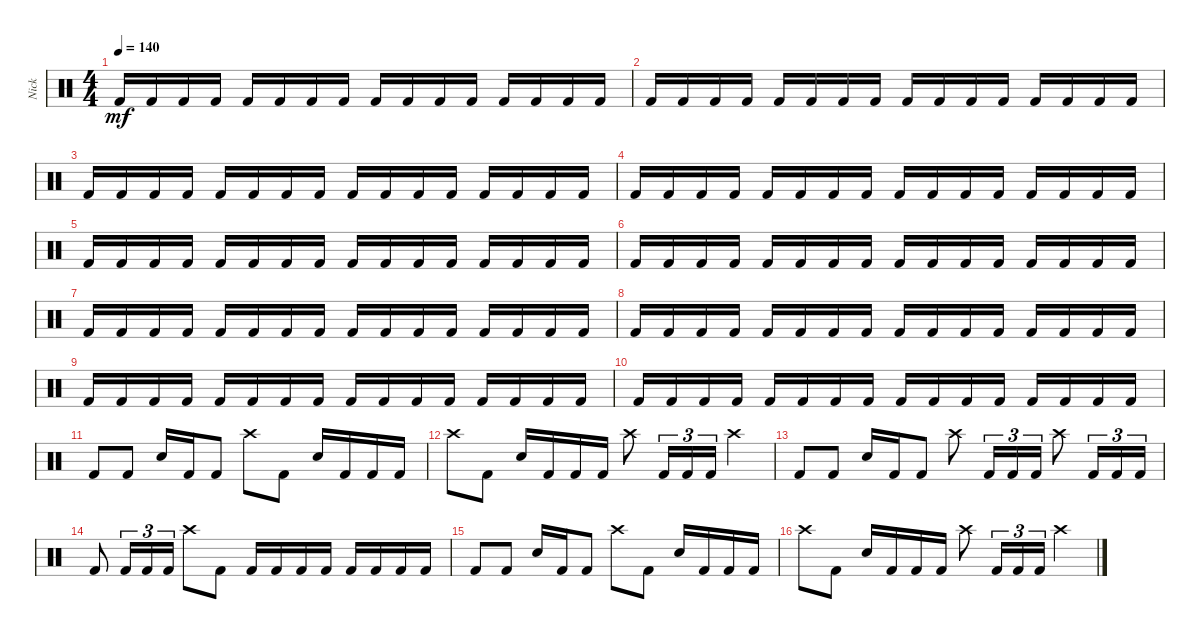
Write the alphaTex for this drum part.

\track ("Nick " "Nick ") {instrument percussion}
\staff {score}
\articulation defaults
\ts (4 4)
\tempo 140
\clef neutral
\ks c "Kick (hit) 2".16{dy mf} "Kick (hit) 2".16 "Kick (hit) 2".16 "Kick (hit) 2".16 "Kick (hit) 2".16 "Kick (hit) 2".16 "Kick (hit) 2".16 "Kick (hit) 2".16 "Kick (hit) 2".16 "Kick (hit) 2".16 "Kick (hit) 2".16 "Kick (hit) 2".16 "Kick (hit) 2".16 "Kick (hit) 2".16 "Kick (hit) 2".16 "Kick (hit) 2".16
|
"Kick (hit) 2".16 "Kick (hit) 2".16 "Kick (hit) 2".16 "Kick (hit) 2".16 "Kick (hit) 2".16 "Kick (hit) 2".16 "Kick (hit) 2".16 "Kick (hit) 2".16 "Kick (hit) 2".16 "Kick (hit) 2".16 "Kick (hit) 2".16 "Kick (hit) 2".16 "Kick (hit) 2".16 "Kick (hit) 2".16 "Kick (hit) 2".16 "Kick (hit) 2".16 |
"Kick (hit) 2".16 "Kick (hit) 2".16 "Kick (hit) 2".16 "Kick (hit) 2".16 "Kick (hit) 2".16 "Kick (hit) 2".16 "Kick (hit) 2".16 "Kick (hit) 2".16 "Kick (hit) 2".16 "Kick (hit) 2".16 "Kick (hit) 2".16 "Kick (hit) 2".16 "Kick (hit) 2".16 "Kick (hit) 2".16 "Kick (hit) 2".16 "Kick (hit) 2".16 |
"Kick (hit) 2".16 "Kick (hit) 2".16 "Kick (hit) 2".16 "Kick (hit) 2".16 "Kick (hit) 2".16 "Kick (hit) 2".16 "Kick (hit) 2".16 "Kick (hit) 2".16 "Kick (hit) 2".16 "Kick (hit) 2".16 "Kick (hit) 2".16 "Kick (hit) 2".16 "Kick (hit) 2".16 "Kick (hit) 2".16 "Kick (hit) 2".16 "Kick (hit) 2".16 |
"Kick (hit) 2".16 "Kick (hit) 2".16 "Kick (hit) 2".16 "Kick (hit) 2".16 "Kick (hit) 2".16 "Kick (hit) 2".16 "Kick (hit) 2".16 "Kick (hit) 2".16 "Kick (hit) 2".16 "Kick (hit) 2".16 "Kick (hit) 2".16 "Kick (hit) 2".16 "Kick (hit) 2".16 "Kick (hit) 2".16 "Kick (hit) 2".16 "Kick (hit) 2".16 |
"Kick (hit) 2".16 "Kick (hit) 2".16 "Kick (hit) 2".16 "Kick (hit) 2".16 "Kick (hit) 2".16 "Kick (hit) 2".16 "Kick (hit) 2".16 "Kick (hit) 2".16 "Kick (hit) 2".16 "Kick (hit) 2".16 "Kick (hit) 2".16 "Kick (hit) 2".16 "Kick (hit) 2".16 "Kick (hit) 2".16 "Kick (hit) 2".16 "Kick (hit) 2".16 |
"Kick (hit) 2".16 "Kick (hit) 2".16 "Kick (hit) 2".16 "Kick (hit) 2".16 "Kick (hit) 2".16 "Kick (hit) 2".16 "Kick (hit) 2".16 "Kick (hit) 2".16 "Kick (hit) 2".16 "Kick (hit) 2".16 "Kick (hit) 2".16 "Kick (hit) 2".16 "Kick (hit) 2".16 "Kick (hit) 2".16 "Kick (hit) 2".16 "Kick (hit) 2".16 |
"Kick (hit) 2".16 "Kick (hit) 2".16 "Kick (hit) 2".16 "Kick (hit) 2".16 "Kick (hit) 2".16 "Kick (hit) 2".16 "Kick (hit) 2".16 "Kick (hit) 2".16 "Kick (hit) 2".16 "Kick (hit) 2".16 "Kick (hit) 2".16 "Kick (hit) 2".16 "Kick (hit) 2".16 "Kick (hit) 2".16 "Kick (hit) 2".16 "Kick (hit) 2".16 |
"Kick (hit) 2".16 "Kick (hit) 2".16 "Kick (hit) 2".16 "Kick (hit) 2".16 "Kick (hit) 2".16 "Kick (hit) 2".16 "Kick (hit) 2".16 "Kick (hit) 2".16 "Kick (hit) 2".16 "Kick (hit) 2".16 "Kick (hit) 2".16 "Kick (hit) 2".16 "Kick (hit) 2".16 "Kick (hit) 2".16 "Kick (hit) 2".16 "Kick (hit) 2".16 |
"Kick (hit) 2".16 "Kick (hit) 2".16 "Kick (hit) 2".16 "Kick (hit) 2".16 "Kick (hit) 2".16 "Kick (hit) 2".16 "Kick (hit) 2".16 "Kick (hit) 2".16 "Kick (hit) 2".16 "Kick (hit) 2".16 "Kick (hit) 2".16 "Kick (hit) 2".16 "Kick (hit) 2".16 "Kick (hit) 2".16 "Kick (hit) 2".16 "Kick (hit) 2".16 |
"Kick (hit) 2".8 "Kick (hit) 2".8 "Snare (hit) 2".16 "Kick (hit) 2".16 "Kick (hit) 2".8 "Crash high (hit)".8 "Kick (hit) 2".8 "Snare (hit) 2".16 "Kick (hit) 2".16 "Kick (hit) 2".16 "Kick (hit) 2".16 |
"Crash high (hit)".8 "Kick (hit) 2".8 "Snare (hit) 2".16 "Kick (hit) 2".16 "Kick (hit) 2".16 "Kick (hit) 2".16 "Crash high (hit)".8 "Kick (hit) 2".16{tu (3 2)} "Kick (hit) 2".16{tu (3 2)} "Kick (hit) 2".16{tu (3 2)} "Crash high (hit)".4 |
"Kick (hit) 2".8 "Kick (hit) 2".8 "Snare (hit) 2".16 "Kick (hit) 2".16 "Kick (hit) 2".8 "Crash high (hit)".8 "Kick (hit) 2".16{tu (3 2)} "Kick (hit) 2".16{tu (3 2)} "Kick (hit) 2".16{tu (3 2)} "Crash high (hit)".8 "Kick (hit) 2".16{tu (3 2)} "Kick (hit) 2".16{tu (3 2)} "Kick (hit) 2".16{tu (3 2)} |
"Kick (hit) 2".8 "Kick (hit) 2".16{tu (3 2)} "Kick (hit) 2".16{tu (3 2)} "Kick (hit) 2".16{tu (3 2)} "Crash high (hit)".8 "Kick (hit) 2".8 "Kick (hit) 2".16 "Kick (hit) 2".16 "Kick (hit) 2".16 "Kick (hit) 2".16 "Kick (hit) 2".16 "Kick (hit) 2".16 "Kick (hit) 2".16 "Kick (hit) 2".16 |
"Kick (hit) 2".8 "Kick (hit) 2".8 "Snare (hit) 2".16 "Kick (hit) 2".16 "Kick (hit) 2".8 "Crash high (hit)".8 "Kick (hit) 2".8 "Snare (hit) 2".16 "Kick (hit) 2".16 "Kick (hit) 2".16 "Kick (hit) 2".16 |
"Crash high (hit)".8 "Kick (hit) 2".8 "Snare (hit) 2".16 "Kick (hit) 2".16 "Kick (hit) 2".16 "Kick (hit) 2".16 "Crash high (hit)".8 "Kick (hit) 2".16{tu (3 2)} "Kick (hit) 2".16{tu (3 2)} "Kick (hit) 2".16{tu (3 2)} "Crash high (hit)".4
